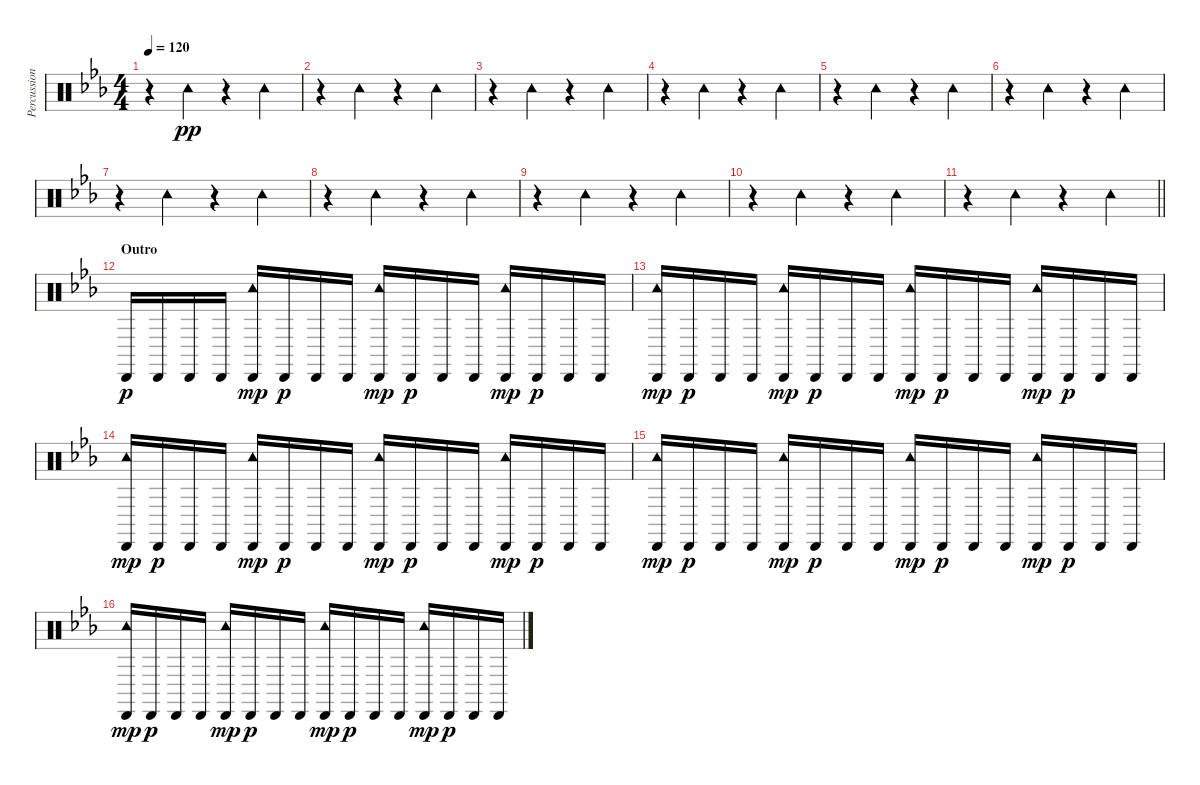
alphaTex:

\track ("Percussion" "Percussion") {instrument percussion}
\staff {score}
\articulation defaults
\ts (4 4)
\tempo 120
\clef neutral
\ks cminor
r.4{dy pp} "Tambourine (hit)".4 r.4 "Tambourine (hit)".4 |
r.4 "Tambourine (hit)".4 r.4 "Tambourine (hit)".4 |
r.4 "Tambourine (hit)".4 r.4 "Tambourine (hit)".4 |
r.4 "Tambourine (hit)".4 r.4 "Tambourine (hit)".4 |
r.4 "Tambourine (hit)".4 r.4 "Tambourine (hit)".4 |
r.4 "Tambourine (hit)".4 r.4 "Tambourine (hit)".4 |
r.4 "Tambourine (hit)".4 r.4 "Tambourine (hit)".4 |
r.4 "Tambourine (hit)".4 r.4 "Tambourine (hit)".4 |
r.4 "Tambourine (hit)".4 r.4 "Tambourine (hit)".4 |
r.4 "Tambourine (hit)".4 r.4 "Tambourine (hit)".4 |
\barLineRight lightlight
r.4 "Tambourine (hit)".4 r.4 "Tambourine (hit)".4 |
\section ("" "Outro")
"Cabasa (hit)".16{dy p} "Cabasa (hit)".16 "Cabasa (hit)".16 "Cabasa (hit)".16 ("Cabasa (hit)" "Tambourine (hit)").16{dy mp} "Cabasa (hit)".16{dy p} "Cabasa (hit)".16 "Cabasa (hit)".16 ("Cabasa (hit)" "Tambourine (hit)").16{dy mp} "Cabasa (hit)".16{dy p} "Cabasa (hit)".16 "Cabasa (hit)".16 ("Cabasa (hit)" "Tambourine (hit)").16{dy mp} "Cabasa (hit)".16{dy p} "Cabasa (hit)".16 "Cabasa (hit)".16 |
("Cabasa (hit)" "Tambourine (hit)").16{dy mp} "Cabasa (hit)".16{dy p} "Cabasa (hit)".16 "Cabasa (hit)".16 ("Cabasa (hit)" "Tambourine (hit)").16{dy mp} "Cabasa (hit)".16{dy p} "Cabasa (hit)".16 "Cabasa (hit)".16 ("Cabasa (hit)" "Tambourine (hit)").16{dy mp} "Cabasa (hit)".16{dy p} "Cabasa (hit)".16 "Cabasa (hit)".16 ("Cabasa (hit)" "Tambourine (hit)").16{dy mp} "Cabasa (hit)".16{dy p} "Cabasa (hit)".16 "Cabasa (hit)".16 |
("Cabasa (hit)" "Tambourine (hit)").16{dy mp} "Cabasa (hit)".16{dy p} "Cabasa (hit)".16 "Cabasa (hit)".16 ("Cabasa (hit)" "Tambourine (hit)").16{dy mp} "Cabasa (hit)".16{dy p} "Cabasa (hit)".16 "Cabasa (hit)".16 ("Cabasa (hit)" "Tambourine (hit)").16{dy mp} "Cabasa (hit)".16{dy p} "Cabasa (hit)".16 "Cabasa (hit)".16 ("Cabasa (hit)" "Tambourine (hit)").16{dy mp} "Cabasa (hit)".16{dy p} "Cabasa (hit)".16 "Cabasa (hit)".16 |
("Cabasa (hit)" "Tambourine (hit)").16{dy mp} "Cabasa (hit)".16{dy p} "Cabasa (hit)".16 "Cabasa (hit)".16 ("Cabasa (hit)" "Tambourine (hit)").16{dy mp} "Cabasa (hit)".16{dy p} "Cabasa (hit)".16 "Cabasa (hit)".16 ("Cabasa (hit)" "Tambourine (hit)").16{dy mp} "Cabasa (hit)".16{dy p} "Cabasa (hit)".16 "Cabasa (hit)".16 ("Cabasa (hit)" "Tambourine (hit)").16{dy mp} "Cabasa (hit)".16{dy p} "Cabasa (hit)".16 "Cabasa (hit)".16 |
("Cabasa (hit)" "Tambourine (hit)").16{dy mp} "Cabasa (hit)".16{dy p} "Cabasa (hit)".16 "Cabasa (hit)".16 ("Cabasa (hit)" "Tambourine (hit)").16{dy mp} "Cabasa (hit)".16{dy p} "Cabasa (hit)".16 "Cabasa (hit)".16 ("Cabasa (hit)" "Tambourine (hit)").16{dy mp} "Cabasa (hit)".16{dy p} "Cabasa (hit)".16 "Cabasa (hit)".16 ("Cabasa (hit)" "Tambourine (hit)").16{dy mp} "Cabasa (hit)".16{dy p} "Cabasa (hit)".16 "Cabasa (hit)".16
